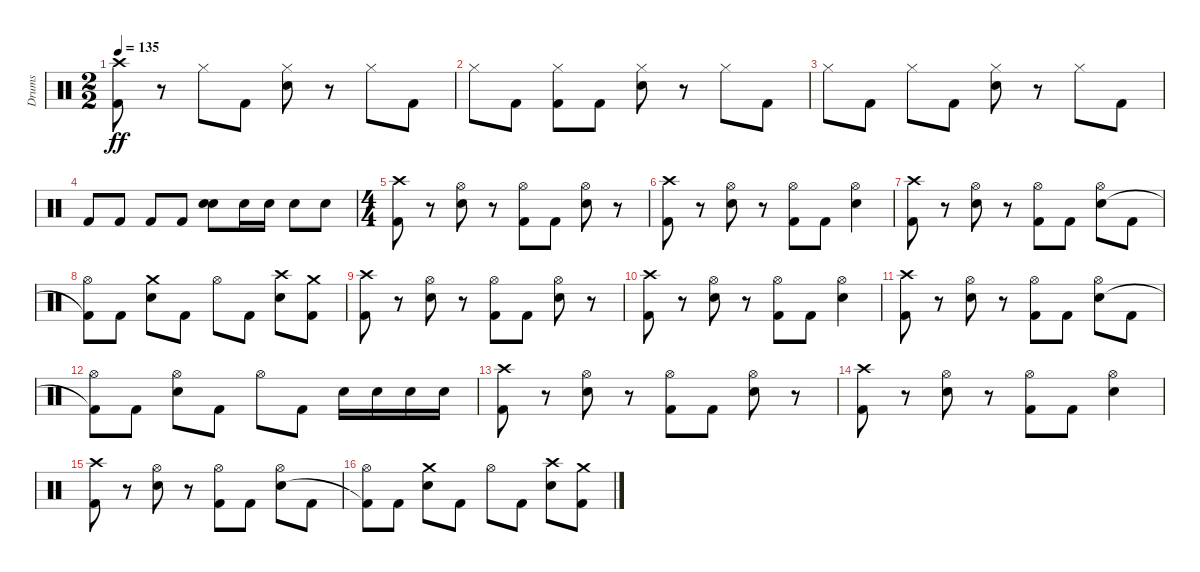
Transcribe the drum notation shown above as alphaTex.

\track ("Drums" "Drums") {instrument percussion}
\staff {score}
\articulation defaults
\ts (2 2)
\tempo 135
\clef neutral
\ks c
("Crash high (hit)" "Kick (hit) 2").8{dy ff} r.8 "Hi-Hat (closed)".8 "Kick (hit) 2".8 ("Hi-Hat (closed)" "Snare (hit) 2").8 r.8 "Hi-Hat (closed)".8 "Kick (hit) 2".8 |
"Hi-Hat (closed)".8 "Kick (hit) 2".8 ("Hi-Hat (closed)" "Kick (hit) 2").8 "Kick (hit) 2".8 ("Hi-Hat (closed)" "Snare (hit) 2").8 r.8 "Hi-Hat (closed)".8 "Kick (hit) 2".8 |
"Hi-Hat (closed)".8 "Kick (hit) 2".8 "Hi-Hat (closed)".8 "Kick (hit) 2".8 ("Hi-Hat (closed)" "Snare (hit) 2").8 r.8 "Hi-Hat (closed)".8 "Kick (hit) 2".8 |
"Kick (hit) 2".8 "Kick (hit) 2".8 "Kick (hit) 2".8 "Kick (hit) 2".8 ("Snare (hit) 2" "Snare (hit) 2").8{bd 480} "Snare (hit) 2".16 "Snare (hit) 2".16 "Snare (hit) 2".8 "Snare (hit) 2".8 |
\ts (4 4)
("Crash high (hit)" "Kick (hit) 2").8 r.8 ("Hi-Hat (open)" "Snare (hit) 2").8 r.8 ("Hi-Hat (open)" "Kick (hit) 2").8 "Kick (hit) 2".8 ("Hi-Hat (open)" "Snare (hit) 2").8 r.8 |
("Crash high (hit)" "Kick (hit) 2").8 r.8 ("Hi-Hat (open)" "Snare (hit) 2").8 r.8 ("Hi-Hat (open)" "Kick (hit) 2").8 "Kick (hit) 2".8 ("Hi-Hat (open)" "Snare (hit) 2").4 |
("Crash high (hit)" "Kick (hit) 2").8 r.8 ("Hi-Hat (open)" "Snare (hit) 2").8 r.8 ("Hi-Hat (open)" "Kick (hit) 2").8 "Kick (hit) 2".8 ("Hi-Hat (open)" "Snare (hit) 2").8 "Kick (hit) 2".8 |
("Hi-Hat (open)" "Kick (hit) 2"{t}).8 "Kick (hit) 2".8 ("Crash medium (hit)" "Snare (hit) 2").8 "Kick (hit) 2".8 "Hi-Hat (open)".8 "Kick (hit) 2".8 ("Crash high (hit)" "Snare (hit) 2").8 ("Crash medium (hit)" "Kick (hit) 2").8 |
("Crash high (hit)" "Kick (hit) 2").8 r.8 ("Hi-Hat (open)" "Snare (hit) 2").8 r.8 ("Hi-Hat (open)" "Kick (hit) 2").8 "Kick (hit) 2".8 ("Hi-Hat (open)" "Snare (hit) 2").8 r.8 |
("Crash high (hit)" "Kick (hit) 2").8 r.8 ("Hi-Hat (open)" "Snare (hit) 2").8 r.8 ("Hi-Hat (open)" "Kick (hit) 2").8 "Kick (hit) 2".8 ("Hi-Hat (open)" "Snare (hit) 2").4 |
("Crash high (hit)" "Kick (hit) 2").8 r.8 ("Hi-Hat (open)" "Snare (hit) 2").8 r.8 ("Hi-Hat (open)" "Kick (hit) 2").8 "Kick (hit) 2".8 ("Hi-Hat (open)" "Snare (hit) 2").8 "Kick (hit) 2".8 |
("Hi-Hat (open)" "Kick (hit) 2"{t}).8 "Kick (hit) 2".8 ("Hi-Hat (open)" "Snare (hit) 2").8 "Kick (hit) 2".8 "Hi-Hat (open)".8 "Kick (hit) 2".8 "Snare (hit) 2".16 "Snare (hit) 2".16 "Snare (hit) 2".16 "Snare (hit) 2".16 |
("Crash high (hit)" "Kick (hit) 2").8 r.8 ("Hi-Hat (open)" "Snare (hit) 2").8 r.8 ("Hi-Hat (open)" "Kick (hit) 2").8 "Kick (hit) 2".8 ("Hi-Hat (open)" "Snare (hit) 2").8 r.8 |
("Crash high (hit)" "Kick (hit) 2").8 r.8 ("Hi-Hat (open)" "Snare (hit) 2").8 r.8 ("Hi-Hat (open)" "Kick (hit) 2").8 "Kick (hit) 2".8 ("Hi-Hat (open)" "Snare (hit) 2").4 |
("Crash high (hit)" "Kick (hit) 2").8 r.8 ("Hi-Hat (open)" "Snare (hit) 2").8 r.8 ("Hi-Hat (open)" "Kick (hit) 2").8 "Kick (hit) 2".8 ("Hi-Hat (open)" "Snare (hit) 2").8 "Kick (hit) 2".8 |
("Hi-Hat (open)" "Kick (hit) 2"{t}).8 "Kick (hit) 2".8 ("Crash medium (hit)" "Snare (hit) 2").8 "Kick (hit) 2".8 "Hi-Hat (open)".8 "Kick (hit) 2".8 ("Crash high (hit)" "Snare (hit) 2").8 ("Crash medium (hit)" "Kick (hit) 2").8
